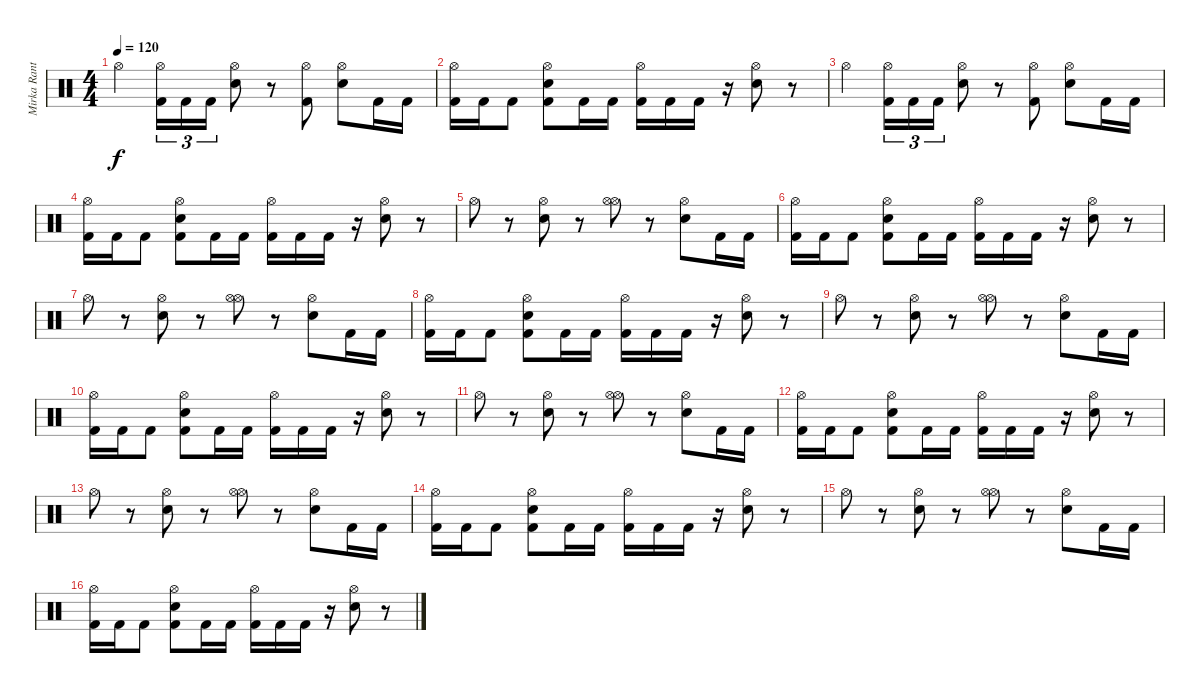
\track ("Mirka Rantanen" "Mirka Rant") {instrument percussion}
\staff {score}
\articulation defaults
\ts (4 4)
\tempo 120
\clef neutral
\ks c "Hi-Hat (open)".4{dy f}
("Hi-Hat (open)" "Kick (hit) 2").16{tu (3 2)} "Kick (hit) 2".16{tu (3 2)} "Kick (hit) 2".16{tu (3 2)} ("Hi-Hat (open)" "Snare (hit) 2").8 r.8 ("Hi-Hat (open)" "Kick (hit) 2").8 ("Hi-Hat (open)" "Snare (hit) 2").8 "Kick (hit) 2".16 "Kick (hit) 2".16 |
("Hi-Hat (open)" "Kick (hit) 2").16 "Kick (hit) 2".16 "Kick (hit) 2".8 ("Hi-Hat (open)" "Snare (hit) 2" "Kick (hit) 2").8 "Kick (hit) 2".16 "Kick (hit) 2".16 ("Hi-Hat (open)" "Kick (hit) 2").16 "Kick (hit) 2".16 "Kick (hit) 2".16 r.16 ("Hi-Hat (open)" "Snare (hit) 2").8 r.8 |
"Hi-Hat (open)".4 ("Hi-Hat (open)" "Kick (hit) 2").16{tu (3 2)} "Kick (hit) 2".16{tu (3 2)} "Kick (hit) 2".16{tu (3 2)} ("Hi-Hat (open)" "Snare (hit) 2").8 r.8 ("Hi-Hat (open)" "Kick (hit) 2").8 ("Hi-Hat (open)" "Snare (hit) 2").8 "Kick (hit) 2".16 "Kick (hit) 2".16 |
("Hi-Hat (open)" "Kick (hit) 2").16 "Kick (hit) 2".16 "Kick (hit) 2".8 ("Hi-Hat (open)" "Snare (hit) 2" "Kick (hit) 2").8 "Kick (hit) 2".16 "Kick (hit) 2".16 ("Hi-Hat (open)" "Kick (hit) 2").16 "Kick (hit) 2".16 "Kick (hit) 2".16 r.16 ("Hi-Hat (open)" "Snare (hit) 2").8 r.8 |
"Hi-Hat (open)".8 r.8 ("Snare (hit) 2" "Hi-Hat (open)").8 r.8 ("Hi-Hat (open)" "Hi-Hat (open)").8 r.8 ("Snare (hit) 2" "Hi-Hat (open)").8 "Kick (hit) 2".16 "Kick (hit) 2".16 |
("Hi-Hat (open)" "Kick (hit) 2").16 "Kick (hit) 2".16 "Kick (hit) 2".8 ("Hi-Hat (open)" "Snare (hit) 2" "Kick (hit) 2").8 "Kick (hit) 2".16 "Kick (hit) 2".16 ("Hi-Hat (open)" "Kick (hit) 2").16 "Kick (hit) 2".16 "Kick (hit) 2".16 r.16 ("Hi-Hat (open)" "Snare (hit) 2").8 r.8 |
"Hi-Hat (open)".8 r.8 ("Snare (hit) 2" "Hi-Hat (open)").8 r.8 ("Hi-Hat (open)" "Hi-Hat (open)").8 r.8 ("Snare (hit) 2" "Hi-Hat (open)").8 "Kick (hit) 2".16 "Kick (hit) 2".16 |
("Hi-Hat (open)" "Kick (hit) 2").16 "Kick (hit) 2".16 "Kick (hit) 2".8 ("Hi-Hat (open)" "Snare (hit) 2" "Kick (hit) 2").8 "Kick (hit) 2".16 "Kick (hit) 2".16 ("Hi-Hat (open)" "Kick (hit) 2").16 "Kick (hit) 2".16 "Kick (hit) 2".16 r.16 ("Hi-Hat (open)" "Snare (hit) 2").8 r.8 |
"Hi-Hat (open)".8 r.8 ("Snare (hit) 2" "Hi-Hat (open)").8 r.8 ("Hi-Hat (open)" "Hi-Hat (open)").8 r.8 ("Snare (hit) 2" "Hi-Hat (open)").8 "Kick (hit) 2".16 "Kick (hit) 2".16 |
("Hi-Hat (open)" "Kick (hit) 2").16 "Kick (hit) 2".16 "Kick (hit) 2".8 ("Hi-Hat (open)" "Snare (hit) 2" "Kick (hit) 2").8 "Kick (hit) 2".16 "Kick (hit) 2".16 ("Hi-Hat (open)" "Kick (hit) 2").16 "Kick (hit) 2".16 "Kick (hit) 2".16 r.16 ("Hi-Hat (open)" "Snare (hit) 2").8 r.8 |
"Hi-Hat (open)".8 r.8 ("Snare (hit) 2" "Hi-Hat (open)").8 r.8 ("Hi-Hat (open)" "Hi-Hat (open)").8 r.8 ("Snare (hit) 2" "Hi-Hat (open)").8 "Kick (hit) 2".16 "Kick (hit) 2".16 |
("Hi-Hat (open)" "Kick (hit) 2").16 "Kick (hit) 2".16 "Kick (hit) 2".8 ("Hi-Hat (open)" "Snare (hit) 2" "Kick (hit) 2").8 "Kick (hit) 2".16 "Kick (hit) 2".16 ("Hi-Hat (open)" "Kick (hit) 2").16 "Kick (hit) 2".16 "Kick (hit) 2".16 r.16 ("Hi-Hat (open)" "Snare (hit) 2").8 r.8 |
"Hi-Hat (open)".8 r.8 ("Snare (hit) 2" "Hi-Hat (open)").8 r.8 ("Hi-Hat (open)" "Hi-Hat (open)").8 r.8 ("Snare (hit) 2" "Hi-Hat (open)").8 "Kick (hit) 2".16 "Kick (hit) 2".16 |
("Hi-Hat (open)" "Kick (hit) 2").16 "Kick (hit) 2".16 "Kick (hit) 2".8 ("Hi-Hat (open)" "Snare (hit) 2" "Kick (hit) 2").8 "Kick (hit) 2".16 "Kick (hit) 2".16 ("Hi-Hat (open)" "Kick (hit) 2").16 "Kick (hit) 2".16 "Kick (hit) 2".16 r.16 ("Hi-Hat (open)" "Snare (hit) 2").8 r.8 |
"Hi-Hat (open)".8 r.8 ("Snare (hit) 2" "Hi-Hat (open)").8 r.8 ("Hi-Hat (open)" "Hi-Hat (open)").8 r.8 ("Snare (hit) 2" "Hi-Hat (open)").8 "Kick (hit) 2".16 "Kick (hit) 2".16 |
("Hi-Hat (open)" "Kick (hit) 2").16 "Kick (hit) 2".16 "Kick (hit) 2".8 ("Hi-Hat (open)" "Snare (hit) 2" "Kick (hit) 2").8 "Kick (hit) 2".16 "Kick (hit) 2".16 ("Hi-Hat (open)" "Kick (hit) 2").16 "Kick (hit) 2".16 "Kick (hit) 2".16 r.16 ("Hi-Hat (open)" "Snare (hit) 2").8 r.8
